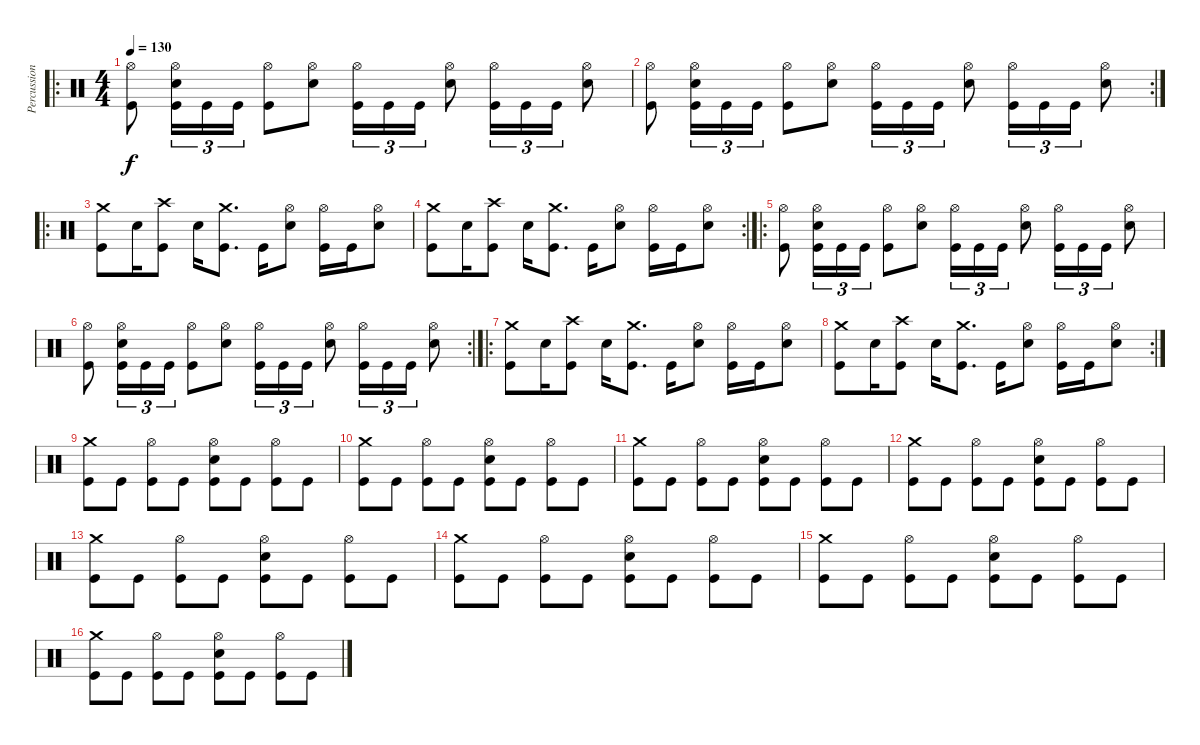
\track ("Percussion" "Percussion") {instrument percussion}
\staff {score}
\articulation defaults
\ro
\ts (4 4)
\tempo 130
\clef neutral
\ks c
("Hi-Hat (open)" "Kick (hit)").8{dy f} ("Hi-Hat (open)" "Snare (hit) 2" "Kick (hit)").16{tu (3 2)} "Kick (hit)".16{tu (3 2)} "Kick (hit)".16{tu (3 2)} ("Hi-Hat (open)" "Kick (hit)").8 ("Hi-Hat (open)" "Snare (hit) 2").8 ("Hi-Hat (open)" "Kick (hit)").16{tu (3 2)} "Kick (hit)".16{tu (3 2)} "Kick (hit)".16{tu (3 2)} ("Hi-Hat (open)" "Snare (hit) 2").8 ("Hi-Hat (open)" "Kick (hit)").16{tu (3 2)} "Kick (hit)".16{tu (3 2)} "Kick (hit)".16{tu (3 2)} ("Hi-Hat (open)" "Snare (hit) 2").8 |
\rc 2
("Hi-Hat (open)" "Kick (hit)").8 ("Hi-Hat (open)" "Snare (hit) 2" "Kick (hit)").16{tu (3 2)} "Kick (hit)".16{tu (3 2)} "Kick (hit)".16{tu (3 2)} ("Hi-Hat (open)" "Kick (hit)").8 ("Hi-Hat (open)" "Snare (hit) 2").8 ("Hi-Hat (open)" "Kick (hit)").16{tu (3 2)} "Kick (hit)".16{tu (3 2)} "Kick (hit)".16{tu (3 2)} ("Hi-Hat (open)" "Snare (hit) 2").8 ("Hi-Hat (open)" "Kick (hit)").16{tu (3 2)} "Kick (hit)".16{tu (3 2)} "Kick (hit)".16{tu (3 2)} ("Hi-Hat (open)" "Snare (hit) 2").8 |
\ro
("Crash medium (hit)" "Kick (hit)").8 "Snare (hit) 2".16 ("Crash high (hit)" "Kick (hit)").8 "Snare (hit) 2".16 ("Crash medium (hit)" "Kick (hit)").8{d} "Kick (hit)".16 ("Hi-Hat (open)" "Snare (hit) 2").8 ("Hi-Hat (open)" "Kick (hit)").16 "Kick (hit)".16 ("Hi-Hat (open)" "Snare (hit) 2").8 |
\rc 2
("Crash medium (hit)" "Kick (hit)").8 "Snare (hit) 2".16 ("Crash high (hit)" "Kick (hit)").8 "Snare (hit) 2".16 ("Crash medium (hit)" "Kick (hit)").8{d} "Kick (hit)".16 ("Hi-Hat (open)" "Snare (hit) 2").8 ("Hi-Hat (open)" "Kick (hit)").16 "Kick (hit)".16 ("Hi-Hat (open)" "Snare (hit) 2").8 |
\ro
("Hi-Hat (open)" "Kick (hit)").8 ("Hi-Hat (open)" "Snare (hit) 2" "Kick (hit)").16{tu (3 2)} "Kick (hit)".16{tu (3 2)} "Kick (hit)".16{tu (3 2)} ("Hi-Hat (open)" "Kick (hit)").8 ("Hi-Hat (open)" "Snare (hit) 2").8 ("Hi-Hat (open)" "Kick (hit)").16{tu (3 2)} "Kick (hit)".16{tu (3 2)} "Kick (hit)".16{tu (3 2)} ("Hi-Hat (open)" "Snare (hit) 2").8 ("Hi-Hat (open)" "Kick (hit)").16{tu (3 2)} "Kick (hit)".16{tu (3 2)} "Kick (hit)".16{tu (3 2)} ("Hi-Hat (open)" "Snare (hit) 2").8 |
\rc 2
("Hi-Hat (open)" "Kick (hit)").8 ("Hi-Hat (open)" "Snare (hit) 2" "Kick (hit)").16{tu (3 2)} "Kick (hit)".16{tu (3 2)} "Kick (hit)".16{tu (3 2)} ("Hi-Hat (open)" "Kick (hit)").8 ("Hi-Hat (open)" "Snare (hit) 2").8 ("Hi-Hat (open)" "Kick (hit)").16{tu (3 2)} "Kick (hit)".16{tu (3 2)} "Kick (hit)".16{tu (3 2)} ("Hi-Hat (open)" "Snare (hit) 2").8 ("Hi-Hat (open)" "Kick (hit)").16{tu (3 2)} "Kick (hit)".16{tu (3 2)} "Kick (hit)".16{tu (3 2)} ("Hi-Hat (open)" "Snare (hit) 2").8 |
\ro
("Crash medium (hit)" "Kick (hit)").8 "Snare (hit) 2".16 ("Crash high (hit)" "Kick (hit)").8 "Snare (hit) 2".16 ("Crash medium (hit)" "Kick (hit)").8{d} "Kick (hit)".16 ("Hi-Hat (open)" "Snare (hit) 2").8 ("Hi-Hat (open)" "Kick (hit)").16 "Kick (hit)".16 ("Hi-Hat (open)" "Snare (hit) 2").8 |
\rc 2
("Crash medium (hit)" "Kick (hit)").8 "Snare (hit) 2".16 ("Crash high (hit)" "Kick (hit)").8 "Snare (hit) 2".16 ("Crash medium (hit)" "Kick (hit)").8{d} "Kick (hit)".16 ("Hi-Hat (open)" "Snare (hit) 2").8 ("Hi-Hat (open)" "Kick (hit)").16 "Kick (hit)".16 ("Hi-Hat (open)" "Snare (hit) 2").8 |
("Crash medium (hit)" "Kick (hit)").8 "Kick (hit)".8 ("Hi-Hat (open)" "Kick (hit)").8 "Kick (hit)".8 ("Hi-Hat (open)" "Snare (hit) 2" "Kick (hit)").8 "Kick (hit)".8 ("Hi-Hat (open)" "Kick (hit)").8 "Kick (hit)".8 |
("Crash medium (hit)" "Kick (hit)").8 "Kick (hit)".8 ("Hi-Hat (open)" "Kick (hit)").8 "Kick (hit)".8 ("Hi-Hat (open)" "Snare (hit) 2" "Kick (hit)").8 "Kick (hit)".8 ("Hi-Hat (open)" "Kick (hit)").8 "Kick (hit)".8 |
("Crash medium (hit)" "Kick (hit)").8 "Kick (hit)".8 ("Hi-Hat (open)" "Kick (hit)").8 "Kick (hit)".8 ("Hi-Hat (open)" "Snare (hit) 2" "Kick (hit)").8 "Kick (hit)".8 ("Hi-Hat (open)" "Kick (hit)").8 "Kick (hit)".8 |
("Crash medium (hit)" "Kick (hit)").8 "Kick (hit)".8 ("Hi-Hat (open)" "Kick (hit)").8 "Kick (hit)".8 ("Hi-Hat (open)" "Snare (hit) 2" "Kick (hit)").8 "Kick (hit)".8 ("Hi-Hat (open)" "Kick (hit)").8 "Kick (hit)".8 |
("Crash medium (hit)" "Kick (hit)").8 "Kick (hit)".8 ("Hi-Hat (open)" "Kick (hit)").8 "Kick (hit)".8 ("Hi-Hat (open)" "Snare (hit) 2" "Kick (hit)").8 "Kick (hit)".8 ("Hi-Hat (open)" "Kick (hit)").8 "Kick (hit)".8 |
("Crash medium (hit)" "Kick (hit)").8 "Kick (hit)".8 ("Hi-Hat (open)" "Kick (hit)").8 "Kick (hit)".8 ("Hi-Hat (open)" "Snare (hit) 2" "Kick (hit)").8 "Kick (hit)".8 ("Hi-Hat (open)" "Kick (hit)").8 "Kick (hit)".8 |
("Crash medium (hit)" "Kick (hit)").8 "Kick (hit)".8 ("Hi-Hat (open)" "Kick (hit)").8 "Kick (hit)".8 ("Hi-Hat (open)" "Snare (hit) 2" "Kick (hit)").8 "Kick (hit)".8 ("Hi-Hat (open)" "Kick (hit)").8 "Kick (hit)".8 |
("Crash medium (hit)" "Kick (hit)").8 "Kick (hit)".8 ("Hi-Hat (open)" "Kick (hit)").8 "Kick (hit)".8 ("Hi-Hat (open)" "Snare (hit) 2" "Kick (hit)").8 "Kick (hit)".8 ("Hi-Hat (open)" "Kick (hit)").8 "Kick (hit)".8
